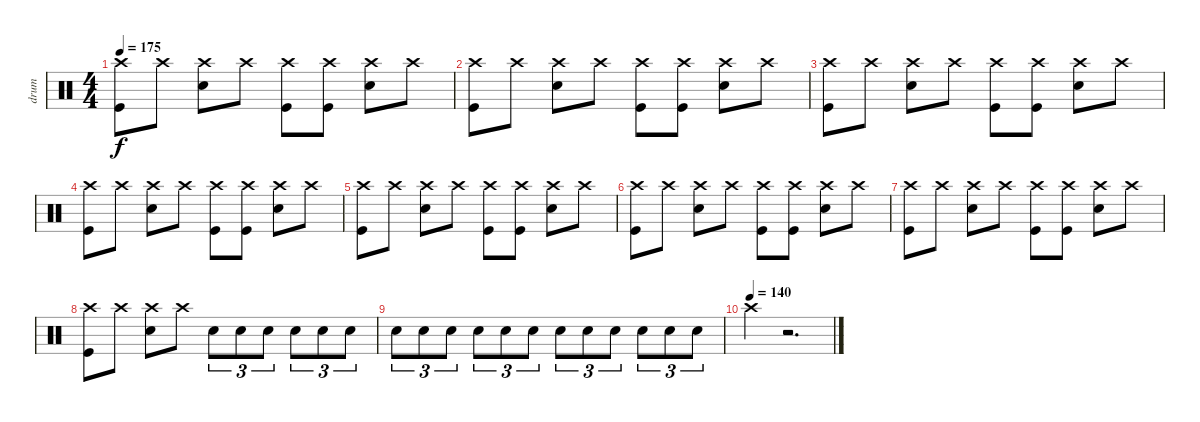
\track ("drum" "drum") {instrument percussion}
\staff {score}
\articulation defaults
\ts (4 4)
\tempo 175
\clef neutral
\ks c
("Crash high (hit)" "Kick (hit)").8{dy f} "Crash high (hit)".8 ("Crash high (hit)" "Snare (hit) 2").8 "Crash high (hit)".8 ("Crash high (hit)" "Kick (hit)").8 ("Crash high (hit)" "Kick (hit)").8 ("Crash high (hit)" "Snare (hit) 2").8 "Crash high (hit)".8 |
("Crash high (hit)" "Kick (hit)").8 "Crash high (hit)".8 ("Crash high (hit)" "Snare (hit) 2").8 "Crash high (hit)".8 ("Crash high (hit)" "Kick (hit)").8 ("Crash high (hit)" "Kick (hit)").8 ("Crash high (hit)" "Snare (hit) 2").8 "Crash high (hit)".8 |
("Crash high (hit)" "Kick (hit)").8 "Crash high (hit)".8 ("Crash high (hit)" "Snare (hit) 2").8 "Crash high (hit)".8 ("Crash high (hit)" "Kick (hit)").8 ("Crash high (hit)" "Kick (hit)").8 ("Crash high (hit)" "Snare (hit) 2").8 "Crash high (hit)".8 |
("Crash high (hit)" "Kick (hit)").8 "Crash high (hit)".8 ("Crash high (hit)" "Snare (hit) 2").8 "Crash high (hit)".8 ("Crash high (hit)" "Kick (hit)").8 ("Crash high (hit)" "Kick (hit)").8 ("Crash high (hit)" "Snare (hit) 2").8 "Crash high (hit)".8 |
("Crash high (hit)" "Kick (hit)").8 "Crash high (hit)".8 ("Crash high (hit)" "Snare (hit) 2").8 "Crash high (hit)".8 ("Crash high (hit)" "Kick (hit)").8 ("Crash high (hit)" "Kick (hit)").8 ("Crash high (hit)" "Snare (hit) 2").8 "Crash high (hit)".8 |
("Crash high (hit)" "Kick (hit)").8 "Crash high (hit)".8 ("Crash high (hit)" "Snare (hit) 2").8 "Crash high (hit)".8 ("Crash high (hit)" "Kick (hit)").8 ("Crash high (hit)" "Kick (hit)").8 ("Crash high (hit)" "Snare (hit) 2").8 "Crash high (hit)".8 |
("Crash high (hit)" "Kick (hit)").8 "Crash high (hit)".8 ("Crash high (hit)" "Snare (hit) 2").8 "Crash high (hit)".8 ("Crash high (hit)" "Kick (hit)").8 ("Crash high (hit)" "Kick (hit)").8 ("Crash high (hit)" "Snare (hit) 2").8 "Crash high (hit)".8 |
("Crash high (hit)" "Kick (hit)").8 "Crash high (hit)".8 ("Crash high (hit)" "Snare (hit) 2").8 "Crash high (hit)".8 "Snare (hit) 2".8{tu (3 2)} "Snare (hit) 2".8{tu (3 2)} "Snare (hit) 2".8{tu (3 2)} "Snare (hit) 2".8{tu (3 2)} "Snare (hit) 2".8{tu (3 2)} "Snare (hit) 2".8{tu (3 2)} |
"Snare (hit) 2".8{tu (3 2)} "Snare (hit) 2".8{tu (3 2)} "Snare (hit) 2".8{tu (3 2)} "Snare (hit) 2".8{tu (3 2)} "Snare (hit) 2".8{tu (3 2)} "Snare (hit) 2".8{tu (3 2)} "Snare (hit) 2".8{tu (3 2)} "Snare (hit) 2".8{tu (3 2)} "Snare (hit) 2".8{tu (3 2)} "Snare (hit) 2".8{tu (3 2)} "Snare (hit) 2".8{tu (3 2)} "Snare (hit) 2".8{tu (3 2)} |
\tempo (140)
"Crash high (hit)".4 r.2{d}
